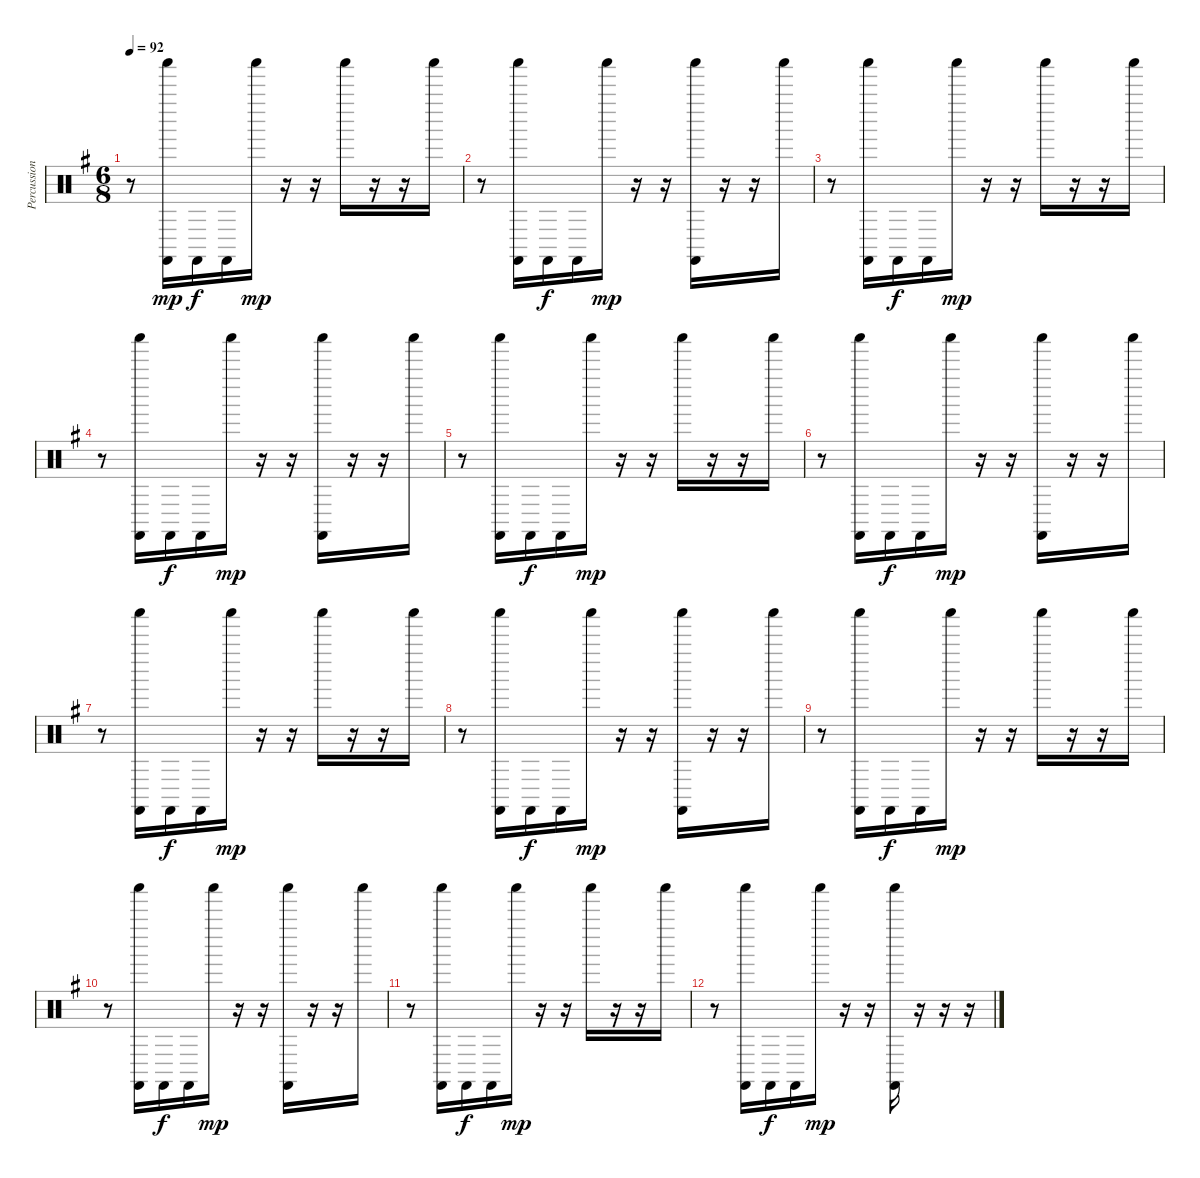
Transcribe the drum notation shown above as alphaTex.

\track ("Percussion" "Percussion") {instrument percussion}
\staff {score}
\articulation defaults
\ts (6 8)
\tempo 92
\clef neutral
\ks g
r.8{dy mp} ("Shaker (hit)" "Castanets (hit)").16 "Castanets (hit)".16{dy f} "Castanets (hit)".16 "Shaker (hit)".16{dy mp} r.16 r.16 "Shaker (hit)".16 r.16 r.16 "Shaker (hit)".16 |
r.8 ("Shaker (hit)" "Castanets (hit)").16 "Castanets (hit)".16{dy f} "Castanets (hit)".16 "Shaker (hit)".16{dy mp} r.16 r.16 ("Shaker (hit)" "Castanets (hit)").16 r.16 r.16 "Shaker (hit)".16 |
r.8 ("Shaker (hit)" "Castanets (hit)").16 "Castanets (hit)".16{dy f} "Castanets (hit)".16 "Shaker (hit)".16{dy mp} r.16 r.16 "Shaker (hit)".16 r.16 r.16 "Shaker (hit)".16 |
r.8 ("Shaker (hit)" "Castanets (hit)").16 "Castanets (hit)".16{dy f} "Castanets (hit)".16 "Shaker (hit)".16{dy mp} r.16 r.16 ("Shaker (hit)" "Castanets (hit)").16 r.16 r.16 "Shaker (hit)".16 |
r.8 ("Shaker (hit)" "Castanets (hit)").16 "Castanets (hit)".16{dy f} "Castanets (hit)".16 "Shaker (hit)".16{dy mp} r.16 r.16 "Shaker (hit)".16 r.16 r.16 "Shaker (hit)".16 |
r.8 ("Shaker (hit)" "Castanets (hit)").16 "Castanets (hit)".16{dy f} "Castanets (hit)".16 "Shaker (hit)".16{dy mp} r.16 r.16 ("Shaker (hit)" "Castanets (hit)").16 r.16 r.16 "Shaker (hit)".16 |
r.8 ("Shaker (hit)" "Castanets (hit)").16 "Castanets (hit)".16{dy f} "Castanets (hit)".16 "Shaker (hit)".16{dy mp} r.16 r.16 "Shaker (hit)".16 r.16 r.16 "Shaker (hit)".16 |
r.8 ("Shaker (hit)" "Castanets (hit)").16 "Castanets (hit)".16{dy f} "Castanets (hit)".16 "Shaker (hit)".16{dy mp} r.16 r.16 ("Shaker (hit)" "Castanets (hit)").16 r.16 r.16 "Shaker (hit)".16 |
r.8 ("Shaker (hit)" "Castanets (hit)").16 "Castanets (hit)".16{dy f} "Castanets (hit)".16 "Shaker (hit)".16{dy mp} r.16 r.16 "Shaker (hit)".16 r.16 r.16 "Shaker (hit)".16 |
r.8 ("Shaker (hit)" "Castanets (hit)").16 "Castanets (hit)".16{dy f} "Castanets (hit)".16 "Shaker (hit)".16{dy mp} r.16 r.16 ("Shaker (hit)" "Castanets (hit)").16 r.16 r.16 "Shaker (hit)".16 |
r.8 ("Shaker (hit)" "Castanets (hit)").16 "Castanets (hit)".16{dy f} "Castanets (hit)".16 "Shaker (hit)".16{dy mp} r.16 r.16 "Shaker (hit)".16 r.16 r.16 "Shaker (hit)".16 |
r.8 ("Shaker (hit)" "Castanets (hit)").16 "Castanets (hit)".16{dy f} "Castanets (hit)".16 "Shaker (hit)".16{dy mp} r.16 r.16 ("Shaker (hit)" "Castanets (hit)").16 r.16 r.16 r.16
